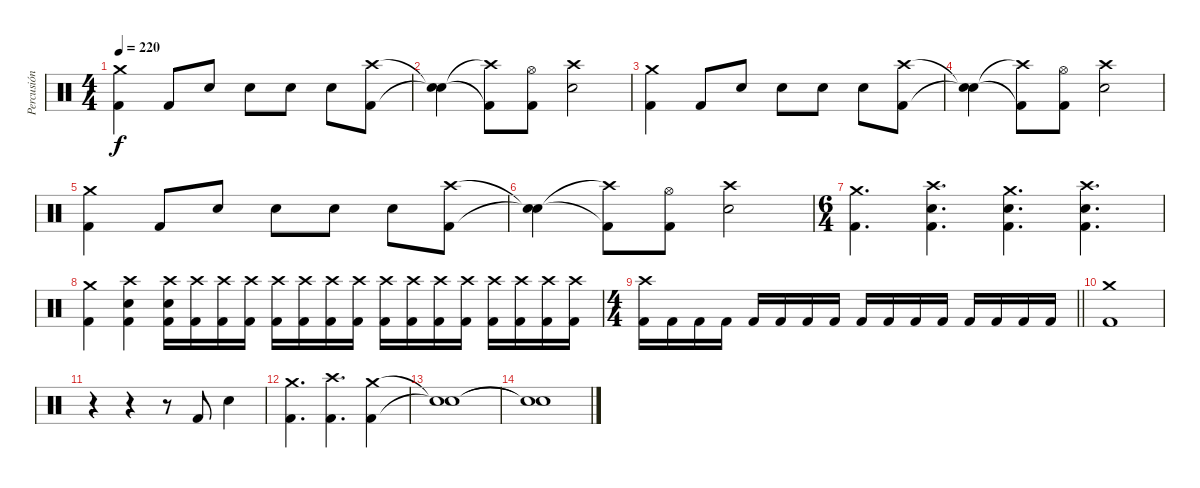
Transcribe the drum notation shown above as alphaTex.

\track ("Percusión" "Percusión") {instrument percussion}
\staff {score}
\articulation defaults
\ts (4 4)
\tempo 220
\clef neutral
\ks c
("Crash medium (hit)" "Kick (hit) 2").4{dy f} "Kick (hit) 2".8 "Electric Snare (hit)".8 "Electric Snare (hit)".8 "Electric Snare (hit)".8 "Electric Snare (hit)".8 ("Crash high (hit)" "Kick (hit) 2").8 |
("Snare (hit)"{t} "Snare (hit)"{t}).4 ("Crash high (hit)"{t} "Kick (hit) 2"{t}).8 ("Hi-Hat (open)" "Kick (hit) 2").8 ("Crash high (hit)" "Electric Snare (hit)").2 |
("Crash medium (hit)" "Kick (hit) 2").4 "Kick (hit) 2".8 "Electric Snare (hit)".8 "Electric Snare (hit)".8 "Electric Snare (hit)".8 "Electric Snare (hit)".8 ("Crash high (hit)" "Kick (hit) 2").8 |
("Snare (hit)"{t} "Snare (hit)"{t}).4 ("Crash high (hit)"{t} "Kick (hit) 2"{t}).8 ("Hi-Hat (open)" "Kick (hit) 2").8 ("Crash high (hit)" "Electric Snare (hit)").2 |
("Crash medium (hit)" "Kick (hit) 2").4 "Kick (hit) 2".8 "Electric Snare (hit)".8 "Electric Snare (hit)".8 "Electric Snare (hit)".8 "Electric Snare (hit)".8 ("Crash high (hit)" "Kick (hit) 2").8 |
("Snare (hit)"{t} "Snare (hit)"{t}).4 ("Crash high (hit)"{t} "Kick (hit) 2"{t}).8 ("Hi-Hat (open)" "Kick (hit) 2").8 ("Crash high (hit)" "Electric Snare (hit)").2 |
\ts (6 4)
("Crash medium (hit)" "Kick (hit) 2").4{d} ("Crash high (hit)" "Electric Snare (hit)" "Kick (hit) 2").4{d} ("Crash medium (hit)" "Electric Snare (hit)" "Kick (hit) 2").4{d} ("Crash high (hit)" "Electric Snare (hit)" "Kick (hit) 2").4{d} |
("Crash medium (hit)" "Kick (hit) 2").4 ("Crash high (hit)" "Electric Snare (hit)" "Kick (hit) 2").4 ("Crash high (hit)" "Electric Snare (hit)" "Kick (hit) 2").16 ("Crash high (hit)" "Kick (hit) 2").16 ("Crash high (hit)" "Kick (hit) 2").16 ("Crash high (hit)" "Kick (hit) 2").16 ("Crash high (hit)" "Kick (hit) 2").16 ("Crash high (hit)" "Kick (hit) 2").16 ("Crash high (hit)" "Kick (hit) 2").16 ("Crash high (hit)" "Kick (hit) 2").16 ("Crash high (hit)" "Kick (hit) 2").16 ("Crash high (hit)" "Kick (hit) 2").16 ("Crash high (hit)" "Kick (hit) 2").16 ("Crash high (hit)" "Kick (hit) 2").16 ("Crash high (hit)" "Kick (hit) 2").16 ("Crash high (hit)" "Kick (hit) 2").16 ("Crash high (hit)" "Kick (hit) 2").16 ("Crash high (hit)" "Kick (hit) 2").16 |
\ts (4 4)
\barLineRight lightlight
("Crash high (hit)" "Kick (hit) 2").16 "Kick (hit) 2".16 "Kick (hit) 2".16 "Kick (hit) 2".16 "Kick (hit) 2".16 "Kick (hit) 2".16 "Kick (hit) 2".16 "Kick (hit) 2".16 "Kick (hit) 2".16 "Kick (hit) 2".16 "Kick (hit) 2".16 "Kick (hit) 2".16 "Kick (hit) 2".16 "Kick (hit) 2".16 "Kick (hit) 2".16 "Kick (hit) 2".16 |
("Crash medium (hit)" "Kick (hit) 2").1 |
r.4 r.4 r.8 "Kick (hit) 2".8 "Electric Snare (hit)".4 |
("Crash medium (hit)" "Kick (hit) 2").4{d} ("Crash high (hit)" "Kick (hit) 2").4{d} ("Crash medium (hit)" "Kick (hit) 2").4 |
("Snare (hit)"{t} "Snare (hit)"{t}).1 |
("Snare (hit)"{t} "Snare (hit)"{t}).1
